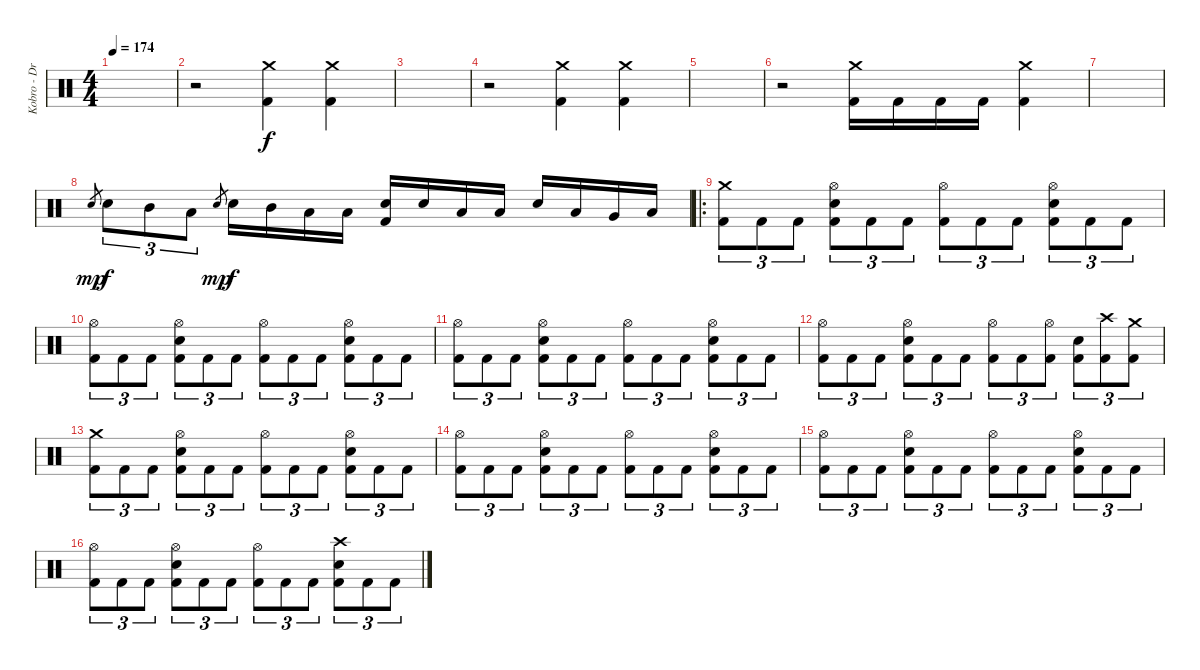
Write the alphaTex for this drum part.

\track ("Kobro - Drums + Percussion" "Kobro - Dr") {instrument percussion}
\staff {score}
\articulation defaults
\ts (4 4)
\tempo 174
\clef neutral
\ks c
|
r.2 ("Crash medium (hit)" "Kick (hit) 2").4 ("Crash medium (hit)" "Kick (hit) 2").4 |
|
r.2{volume 13} ("Crash medium (hit)" "Kick (hit) 2").4 ("Crash medium (hit)" "Kick (hit) 2").4 |
|
r.2{volume 13} ("Crash medium (hit)" "Kick (hit) 2").16 "Kick (hit) 2".16 "Kick (hit) 2".16 "Kick (hit) 2".16 ("Crash medium (hit)" "Kick (hit) 2").4 |
|
"Electric Snare (hit)".8{gr dy mp} "Electric Snare (hit)".8{tu (3 2) dy f volume 13} "Mid Tom (hit)".8{tu (3 2)} "Low Tom (hit)".8{tu (3 2)} "Electric Snare (hit)".8{gr dy mp} "Electric Snare (hit)".16{dy f} "Mid Tom (hit)".16 "Low Tom (hit)".16 "Low Tom (hit)".16 ("Electric Snare (hit)" "Kick (hit) 2").16 "Electric Snare (hit)".16 "Low Tom (hit)".16 "Low Tom (hit)".16 "Electric Snare (hit)".16 "Low Tom (hit)".16 "Very Low Tom (hit)".16 "Low Floor Tom (hit)".16 |
\ro
("Crash medium (hit)" "Kick (hit) 2").8{tu (3 2)} "Kick (hit) 2".8{tu (3 2)} "Kick (hit) 2".8{tu (3 2)} ("Hi-Hat (open)" "Electric Snare (hit)" "Kick (hit) 2").8{tu (3 2)} "Kick (hit) 2".8{tu (3 2)} "Kick (hit) 2".8{tu (3 2)} ("Hi-Hat (open)" "Kick (hit) 2").8{tu (3 2)} "Kick (hit) 2".8{tu (3 2)} "Kick (hit) 2".8{tu (3 2)} ("Hi-Hat (open)" "Electric Snare (hit)" "Kick (hit) 2").8{tu (3 2)} "Kick (hit) 2".8{tu (3 2)} "Kick (hit) 2".8{tu (3 2)} |
("Hi-Hat (open)" "Kick (hit) 2").8{tu (3 2)} "Kick (hit) 2".8{tu (3 2)} "Kick (hit) 2".8{tu (3 2)} ("Hi-Hat (open)" "Electric Snare (hit)" "Kick (hit) 2").8{tu (3 2)} "Kick (hit) 2".8{tu (3 2)} "Kick (hit) 2".8{tu (3 2)} ("Hi-Hat (open)" "Kick (hit) 2").8{tu (3 2)} "Kick (hit) 2".8{tu (3 2)} "Kick (hit) 2".8{tu (3 2)} ("Hi-Hat (open)" "Electric Snare (hit)" "Kick (hit) 2").8{tu (3 2)} "Kick (hit) 2".8{tu (3 2)} "Kick (hit) 2".8{tu (3 2)} |
("Hi-Hat (open)" "Kick (hit) 2").8{tu (3 2)} "Kick (hit) 2".8{tu (3 2)} "Kick (hit) 2".8{tu (3 2)} ("Hi-Hat (open)" "Electric Snare (hit)" "Kick (hit) 2").8{tu (3 2)} "Kick (hit) 2".8{tu (3 2)} "Kick (hit) 2".8{tu (3 2)} ("Hi-Hat (open)" "Kick (hit) 2").8{tu (3 2)} "Kick (hit) 2".8{tu (3 2)} "Kick (hit) 2".8{tu (3 2)} ("Hi-Hat (open)" "Electric Snare (hit)" "Kick (hit) 2").8{tu (3 2)} "Kick (hit) 2".8{tu (3 2)} "Kick (hit) 2".8{tu (3 2)} |
("Hi-Hat (open)" "Kick (hit) 2").8{tu (3 2)} "Kick (hit) 2".8{tu (3 2)} "Kick (hit) 2".8{tu (3 2)} ("Hi-Hat (open)" "Electric Snare (hit)" "Kick (hit) 2").8{tu (3 2)} "Kick (hit) 2".8{tu (3 2)} "Kick (hit) 2".8{tu (3 2)} ("Hi-Hat (open)" "Kick (hit) 2").8{tu (3 2)} "Kick (hit) 2".8{tu (3 2)} ("Hi-Hat (open)" "Kick (hit) 2").8{tu (3 2)} ("Electric Snare (hit)" "Kick (hit) 2").8{tu (3 2)} ("Crash high (hit)" "Kick (hit) 2").8{tu (3 2)} ("Crash medium (hit)" "Kick (hit) 2").8{tu (3 2)} |
("Crash medium (hit)" "Kick (hit) 2").8{tu (3 2)} "Kick (hit) 2".8{tu (3 2)} "Kick (hit) 2".8{tu (3 2)} ("Hi-Hat (open)" "Electric Snare (hit)" "Kick (hit) 2").8{tu (3 2)} "Kick (hit) 2".8{tu (3 2)} "Kick (hit) 2".8{tu (3 2)} ("Hi-Hat (open)" "Kick (hit) 2").8{tu (3 2)} "Kick (hit) 2".8{tu (3 2)} "Kick (hit) 2".8{tu (3 2)} ("Hi-Hat (open)" "Electric Snare (hit)" "Kick (hit) 2").8{tu (3 2)} "Kick (hit) 2".8{tu (3 2)} "Kick (hit) 2".8{tu (3 2)} |
("Hi-Hat (open)" "Kick (hit) 2").8{tu (3 2)} "Kick (hit) 2".8{tu (3 2)} "Kick (hit) 2".8{tu (3 2)} ("Hi-Hat (open)" "Electric Snare (hit)" "Kick (hit) 2").8{tu (3 2)} "Kick (hit) 2".8{tu (3 2)} "Kick (hit) 2".8{tu (3 2)} ("Hi-Hat (open)" "Kick (hit) 2").8{tu (3 2)} "Kick (hit) 2".8{tu (3 2)} "Kick (hit) 2".8{tu (3 2)} ("Hi-Hat (open)" "Electric Snare (hit)" "Kick (hit) 2").8{tu (3 2)} "Kick (hit) 2".8{tu (3 2)} "Kick (hit) 2".8{tu (3 2)} |
("Hi-Hat (open)" "Kick (hit) 2").8{tu (3 2)} "Kick (hit) 2".8{tu (3 2)} "Kick (hit) 2".8{tu (3 2)} ("Hi-Hat (open)" "Electric Snare (hit)" "Kick (hit) 2").8{tu (3 2)} "Kick (hit) 2".8{tu (3 2)} "Kick (hit) 2".8{tu (3 2)} ("Hi-Hat (open)" "Kick (hit) 2").8{tu (3 2)} "Kick (hit) 2".8{tu (3 2)} "Kick (hit) 2".8{tu (3 2)} ("Hi-Hat (open)" "Electric Snare (hit)" "Kick (hit) 2").8{tu (3 2)} "Kick (hit) 2".8{tu (3 2)} "Kick (hit) 2".8{tu (3 2)} |
("Hi-Hat (open)" "Kick (hit) 2").8{tu (3 2)} "Kick (hit) 2".8{tu (3 2)} "Kick (hit) 2".8{tu (3 2)} ("Hi-Hat (open)" "Electric Snare (hit)" "Kick (hit) 2").8{tu (3 2)} "Kick (hit) 2".8{tu (3 2)} "Kick (hit) 2".8{tu (3 2)} ("Hi-Hat (open)" "Kick (hit) 2").8{tu (3 2)} "Kick (hit) 2".8{tu (3 2)} "Kick (hit) 2".8{tu (3 2)} ("Crash high (hit)" "Electric Snare (hit)" "Kick (hit) 2").8{tu (3 2)} "Kick (hit) 2".8{tu (3 2)} "Kick (hit) 2".8{tu (3 2)}
